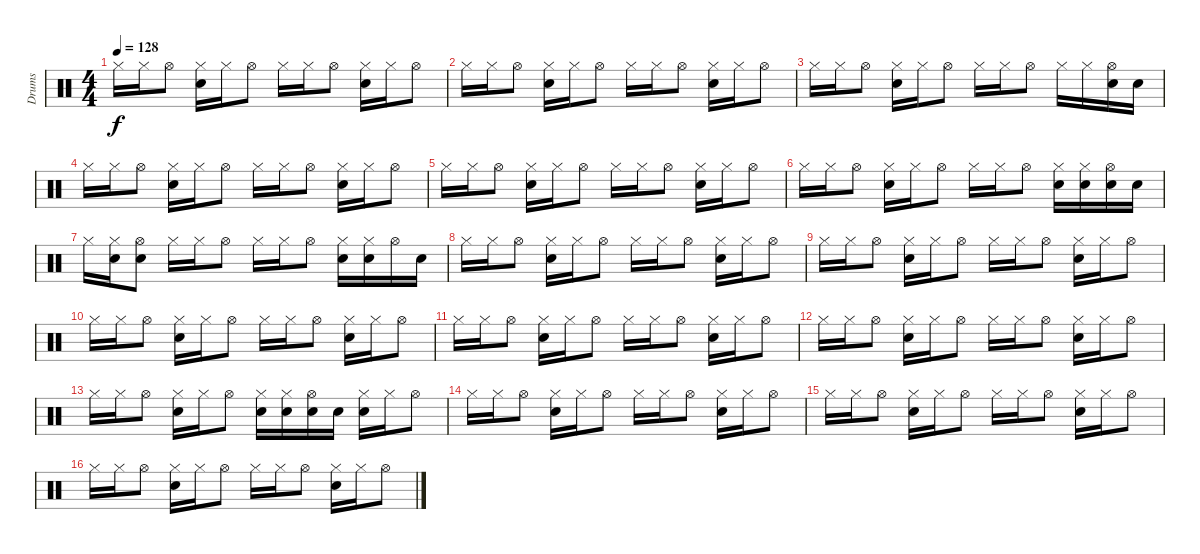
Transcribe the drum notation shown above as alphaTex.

\track ("Drums" "Drums") {instrument percussion}
\staff {score}
\articulation defaults
\ts (4 4)
\tempo 128
\clef neutral
\ks c "Hi-Hat (closed)".16{dy f} "Hi-Hat (closed)".16 "Hi-Hat (open)".8
("Hi-Hat (closed)" "Electric Snare (hit)").16 "Hi-Hat (closed)".16 "Hi-Hat (open)".8 "Hi-Hat (closed)".16 "Hi-Hat (closed)".16 "Hi-Hat (open)".8 ("Hi-Hat (closed)" "Electric Snare (hit)").16 "Hi-Hat (closed)".16 "Hi-Hat (open)".8 |
"Hi-Hat (closed)".16 "Hi-Hat (closed)".16 "Hi-Hat (open)".8 ("Hi-Hat (closed)" "Electric Snare (hit)").16 "Hi-Hat (closed)".16 "Hi-Hat (open)".8 "Hi-Hat (closed)".16 "Hi-Hat (closed)".16 "Hi-Hat (open)".8 ("Hi-Hat (closed)" "Electric Snare (hit)").16 "Hi-Hat (closed)".16 "Hi-Hat (open)".8 |
"Hi-Hat (closed)".16 "Hi-Hat (closed)".16 "Hi-Hat (open)".8 ("Hi-Hat (closed)" "Electric Snare (hit)").16 "Hi-Hat (closed)".16 "Hi-Hat (open)".8 "Hi-Hat (closed)".16 "Hi-Hat (closed)".16 "Hi-Hat (open)".8 "Hi-Hat (closed)".16 "Hi-Hat (closed)".16 ("Hi-Hat (open)" "Electric Snare (hit)").16 "Electric Snare (hit)".16 |
"Hi-Hat (closed)".16 "Hi-Hat (closed)".16 "Hi-Hat (open)".8 ("Hi-Hat (closed)" "Electric Snare (hit)").16 "Hi-Hat (closed)".16 "Hi-Hat (open)".8 "Hi-Hat (closed)".16 "Hi-Hat (closed)".16 "Hi-Hat (open)".8 ("Hi-Hat (closed)" "Electric Snare (hit)").16 "Hi-Hat (closed)".16 "Hi-Hat (open)".8 |
"Hi-Hat (closed)".16 "Hi-Hat (closed)".16 "Hi-Hat (open)".8 ("Hi-Hat (closed)" "Electric Snare (hit)").16 "Hi-Hat (closed)".16 "Hi-Hat (open)".8 "Hi-Hat (closed)".16 "Hi-Hat (closed)".16 "Hi-Hat (open)".8 ("Hi-Hat (closed)" "Electric Snare (hit)").16 "Hi-Hat (closed)".16 "Hi-Hat (open)".8 |
"Hi-Hat (closed)".16 "Hi-Hat (closed)".16 "Hi-Hat (open)".8 ("Hi-Hat (closed)" "Electric Snare (hit)").16 "Hi-Hat (closed)".16 "Hi-Hat (open)".8 "Hi-Hat (closed)".16 "Hi-Hat (closed)".16 "Hi-Hat (open)".8 ("Hi-Hat (closed)" "Electric Snare (hit)").16 ("Hi-Hat (closed)" "Electric Snare (hit)").16 ("Hi-Hat (open)" "Electric Snare (hit)").16 "Electric Snare (hit)".16 |
"Hi-Hat (closed)".16 ("Hi-Hat (closed)" "Electric Snare (hit)").16 ("Hi-Hat (open)" "Electric Snare (hit)").8 "Hi-Hat (closed)".16 "Hi-Hat (closed)".16 "Hi-Hat (open)".8 "Hi-Hat (closed)".16 "Hi-Hat (closed)".16 "Hi-Hat (open)".8 ("Hi-Hat (closed)" "Electric Snare (hit)").16 ("Hi-Hat (closed)" "Electric Snare (hit)").16 "Hi-Hat (open)".16 "Electric Snare (hit)".16 |
"Hi-Hat (closed)".16 "Hi-Hat (closed)".16 "Hi-Hat (open)".8 ("Hi-Hat (closed)" "Electric Snare (hit)").16 "Hi-Hat (closed)".16 "Hi-Hat (open)".8 "Hi-Hat (closed)".16 "Hi-Hat (closed)".16 "Hi-Hat (open)".8 ("Hi-Hat (closed)" "Electric Snare (hit)").16 "Hi-Hat (closed)".16 "Hi-Hat (open)".8 |
"Hi-Hat (closed)".16 "Hi-Hat (closed)".16 "Hi-Hat (open)".8 ("Hi-Hat (closed)" "Electric Snare (hit)").16 "Hi-Hat (closed)".16 "Hi-Hat (open)".8 "Hi-Hat (closed)".16 "Hi-Hat (closed)".16 "Hi-Hat (open)".8 ("Hi-Hat (closed)" "Electric Snare (hit)").16 "Hi-Hat (closed)".16 "Hi-Hat (open)".8 |
"Hi-Hat (closed)".16 "Hi-Hat (closed)".16 "Hi-Hat (open)".8 ("Hi-Hat (closed)" "Electric Snare (hit)").16 "Hi-Hat (closed)".16 "Hi-Hat (open)".8 "Hi-Hat (closed)".16 "Hi-Hat (closed)".16 "Hi-Hat (open)".8 ("Hi-Hat (closed)" "Electric Snare (hit)").16 "Hi-Hat (closed)".16 "Hi-Hat (open)".8 |
"Hi-Hat (closed)".16 "Hi-Hat (closed)".16 "Hi-Hat (open)".8 ("Hi-Hat (closed)" "Electric Snare (hit)").16 "Hi-Hat (closed)".16 "Hi-Hat (open)".8 "Hi-Hat (closed)".16 "Hi-Hat (closed)".16 "Hi-Hat (open)".8 ("Hi-Hat (closed)" "Electric Snare (hit)").16 "Hi-Hat (closed)".16 "Hi-Hat (open)".8 |
"Hi-Hat (closed)".16 "Hi-Hat (closed)".16 "Hi-Hat (open)".8 ("Hi-Hat (closed)" "Electric Snare (hit)").16 "Hi-Hat (closed)".16 "Hi-Hat (open)".8 "Hi-Hat (closed)".16 "Hi-Hat (closed)".16 "Hi-Hat (open)".8 ("Hi-Hat (closed)" "Electric Snare (hit)").16 "Hi-Hat (closed)".16 "Hi-Hat (open)".8 |
"Hi-Hat (closed)".16 "Hi-Hat (closed)".16 "Hi-Hat (open)".8 ("Hi-Hat (closed)" "Electric Snare (hit)").16 "Hi-Hat (closed)".16 "Hi-Hat (open)".8 ("Hi-Hat (closed)" "Electric Snare (hit)").16 ("Hi-Hat (closed)" "Electric Snare (hit)").16 ("Hi-Hat (open)" "Electric Snare (hit)").16 "Electric Snare (hit)".16 ("Hi-Hat (closed)" "Electric Snare (hit)").16 "Hi-Hat (closed)".16 "Hi-Hat (open)".8 |
"Hi-Hat (closed)".16 "Hi-Hat (closed)".16 "Hi-Hat (open)".8 ("Hi-Hat (closed)" "Electric Snare (hit)").16 "Hi-Hat (closed)".16 "Hi-Hat (open)".8 "Hi-Hat (closed)".16 "Hi-Hat (closed)".16 "Hi-Hat (open)".8 ("Hi-Hat (closed)" "Electric Snare (hit)").16 "Hi-Hat (closed)".16 "Hi-Hat (open)".8 |
"Hi-Hat (closed)".16 "Hi-Hat (closed)".16 "Hi-Hat (open)".8 ("Hi-Hat (closed)" "Electric Snare (hit)").16 "Hi-Hat (closed)".16 "Hi-Hat (open)".8 "Hi-Hat (closed)".16 "Hi-Hat (closed)".16 "Hi-Hat (open)".8 ("Hi-Hat (closed)" "Electric Snare (hit)").16 "Hi-Hat (closed)".16 "Hi-Hat (open)".8 |
"Hi-Hat (closed)".16 "Hi-Hat (closed)".16 "Hi-Hat (open)".8 ("Hi-Hat (closed)" "Electric Snare (hit)").16 "Hi-Hat (closed)".16 "Hi-Hat (open)".8 "Hi-Hat (closed)".16 "Hi-Hat (closed)".16 "Hi-Hat (open)".8 ("Hi-Hat (closed)" "Electric Snare (hit)").16 "Hi-Hat (closed)".16 "Hi-Hat (open)".8
